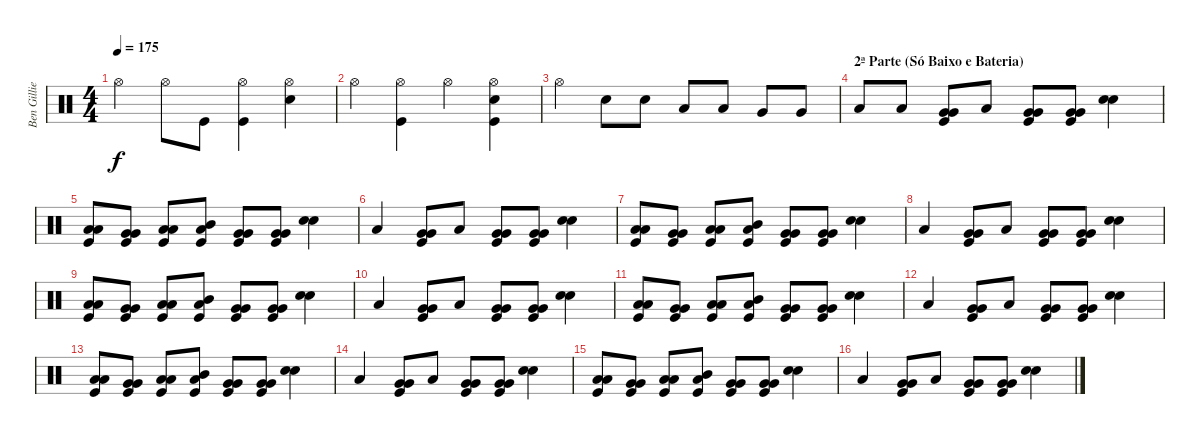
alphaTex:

\track ("Ben Gillies" "Ben Gillie") {instrument percussion}
\staff {score}
\articulation defaults
\ts (4 4)
\tempo 175
\clef neutral
\ks c "Hi-Hat (open)".4{dy f} "Hi-Hat (open)".8 "Kick (hit)".8
("Kick (hit)" "Hi-Hat (open)").4 ("Snare (hit) 2" "Hi-Hat (open)").4 |
"Hi-Hat (open)".4 ("Kick (hit)" "Hi-Hat (open)").4 "Hi-Hat (open)".4 ("Kick (hit)" "Snare (hit) 2" "Hi-Hat (open)").4 |
"Hi-Hat (open)".4 "Snare (hit) 2".8 "Snare (hit) 2".8 "Low Tom (hit)".8 "Low Tom (hit)".8 "Very Low Tom (hit)".8 "Very Low Tom (hit)".8 |
\section ("" "2ª Parte (Só Baixo e Bateria)")
"Low Floor Tom (hit)".8 "Low Floor Tom (hit)".8 ("Kick (hit)" "Very Low Tom (hit)" "Very Low Tom (hit)").8 "Low Tom (hit)".8 ("Kick (hit)" "Very Low Tom (hit)" "Very Low Tom (hit)").8 ("Kick (hit)" "Very Low Tom (hit)" "Very Low Tom (hit)").8 ("Snare (hit) 2" "Snare (hit) 2").4{bu 240} |
("Kick (hit)" "Low Tom (hit)" "Low Tom (hit)").8 ("Kick (hit)" "Very Low Tom (hit)" "Very Low Tom (hit)").8 ("Kick (hit)" "Low Tom (hit)" "Low Tom (hit)").8 ("Kick (hit)" "Mid Tom (hit)" "Low Tom (hit)").8 ("Kick (hit)" "Very Low Tom (hit)" "Very Low Tom (hit)").8 ("Kick (hit)" "Very Low Tom (hit)" "Very Low Tom (hit)").8 ("Snare (hit) 2" "Snare (hit) 2").4{bu 240} |
"Low Tom (hit)".4 ("Kick (hit)" "Very Low Tom (hit)" "Very Low Tom (hit)").8 "Low Tom (hit)".8 ("Kick (hit)" "Very Low Tom (hit)" "Very Low Tom (hit)").8 ("Kick (hit)" "Very Low Tom (hit)" "Very Low Tom (hit)").8 ("Snare (hit) 2" "Snare (hit) 2").4{bu 240} |
("Kick (hit)" "Low Tom (hit)" "Low Tom (hit)").8 ("Kick (hit)" "Very Low Tom (hit)" "Very Low Tom (hit)").8 ("Kick (hit)" "Low Tom (hit)" "Low Tom (hit)").8 ("Kick (hit)" "Mid Tom (hit)" "Low Tom (hit)").8 ("Kick (hit)" "Very Low Tom (hit)" "Very Low Tom (hit)").8 ("Kick (hit)" "Very Low Tom (hit)" "Very Low Tom (hit)").8 ("Snare (hit) 2" "Snare (hit) 2").4{bu 240} |
"Low Tom (hit)".4 ("Kick (hit)" "Very Low Tom (hit)" "Very Low Tom (hit)").8 "Low Tom (hit)".8 ("Kick (hit)" "Very Low Tom (hit)" "Very Low Tom (hit)").8 ("Kick (hit)" "Very Low Tom (hit)" "Very Low Tom (hit)").8 ("Snare (hit) 2" "Snare (hit) 2").4{bu 240} |
("Kick (hit)" "Low Tom (hit)" "Low Tom (hit)").8 ("Kick (hit)" "Very Low Tom (hit)" "Very Low Tom (hit)").8 ("Kick (hit)" "Low Tom (hit)" "Low Tom (hit)").8 ("Kick (hit)" "Mid Tom (hit)" "Low Tom (hit)").8 ("Kick (hit)" "Very Low Tom (hit)" "Very Low Tom (hit)").8 ("Kick (hit)" "Very Low Tom (hit)" "Very Low Tom (hit)").8 ("Snare (hit) 2" "Snare (hit) 2").4{bu 240} |
"Low Tom (hit)".4 ("Kick (hit)" "Very Low Tom (hit)" "Very Low Tom (hit)").8 "Low Tom (hit)".8 ("Kick (hit)" "Very Low Tom (hit)" "Very Low Tom (hit)").8 ("Kick (hit)" "Very Low Tom (hit)" "Very Low Tom (hit)").8 ("Snare (hit) 2" "Snare (hit) 2").4{bu 240} |
("Kick (hit)" "Low Tom (hit)" "Low Tom (hit)").8 ("Kick (hit)" "Very Low Tom (hit)" "Very Low Tom (hit)").8 ("Kick (hit)" "Low Tom (hit)" "Low Tom (hit)").8 ("Kick (hit)" "Mid Tom (hit)" "Low Tom (hit)").8 ("Kick (hit)" "Very Low Tom (hit)" "Very Low Tom (hit)").8 ("Kick (hit)" "Very Low Tom (hit)" "Very Low Tom (hit)").8 ("Snare (hit) 2" "Snare (hit) 2").4{bu 240} |
"Low Tom (hit)".4 ("Kick (hit)" "Very Low Tom (hit)" "Very Low Tom (hit)").8 "Low Tom (hit)".8 ("Kick (hit)" "Very Low Tom (hit)" "Very Low Tom (hit)").8 ("Kick (hit)" "Very Low Tom (hit)" "Very Low Tom (hit)").8 ("Snare (hit) 2" "Snare (hit) 2").4{bu 240} |
("Kick (hit)" "Low Tom (hit)" "Low Tom (hit)").8 ("Kick (hit)" "Very Low Tom (hit)" "Very Low Tom (hit)").8 ("Kick (hit)" "Low Tom (hit)" "Low Tom (hit)").8 ("Kick (hit)" "Mid Tom (hit)" "Low Tom (hit)").8 ("Kick (hit)" "Very Low Tom (hit)" "Very Low Tom (hit)").8 ("Kick (hit)" "Very Low Tom (hit)" "Very Low Tom (hit)").8 ("Snare (hit) 2" "Snare (hit) 2").4{bu 240} |
"Low Tom (hit)".4 ("Kick (hit)" "Very Low Tom (hit)" "Very Low Tom (hit)").8 "Low Tom (hit)".8 ("Kick (hit)" "Very Low Tom (hit)" "Very Low Tom (hit)").8 ("Kick (hit)" "Very Low Tom (hit)" "Very Low Tom (hit)").8 ("Snare (hit) 2" "Snare (hit) 2").4{bu 240} |
("Kick (hit)" "Low Tom (hit)" "Low Tom (hit)").8 ("Kick (hit)" "Very Low Tom (hit)" "Very Low Tom (hit)").8 ("Kick (hit)" "Low Tom (hit)" "Low Tom (hit)").8 ("Kick (hit)" "Mid Tom (hit)" "Low Tom (hit)").8 ("Kick (hit)" "Very Low Tom (hit)" "Very Low Tom (hit)").8 ("Kick (hit)" "Very Low Tom (hit)" "Very Low Tom (hit)").8 ("Snare (hit) 2" "Snare (hit) 2").4{bu 240} |
"Low Tom (hit)".4 ("Kick (hit)" "Very Low Tom (hit)" "Very Low Tom (hit)").8 "Low Tom (hit)".8 ("Kick (hit)" "Very Low Tom (hit)" "Very Low Tom (hit)").8 ("Kick (hit)" "Very Low Tom (hit)" "Very Low Tom (hit)").8 ("Snare (hit) 2" "Snare (hit) 2").4{bu 240}
